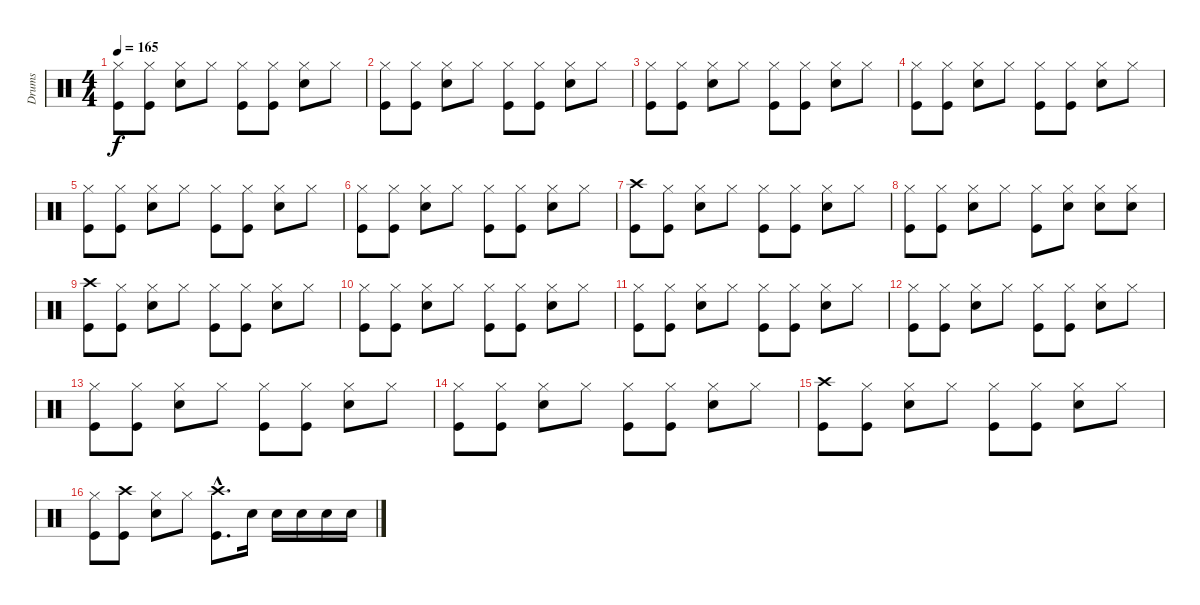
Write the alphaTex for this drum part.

\track ("Drums" "Drums") {instrument percussion}
\staff {score}
\articulation defaults
\ts (4 4)
\tempo 165
\clef neutral
\ks c
("Hi-Hat (closed)" "Kick (hit)").8{dy f} ("Hi-Hat (closed)" "Kick (hit)").8 ("Hi-Hat (closed)" "Snare (hit) 2").8 "Hi-Hat (closed)".8 ("Hi-Hat (closed)" "Kick (hit)").8 ("Hi-Hat (closed)" "Kick (hit)").8 ("Hi-Hat (closed)" "Snare (hit) 2").8 "Hi-Hat (closed)".8 |
("Hi-Hat (closed)" "Kick (hit)").8 ("Hi-Hat (closed)" "Kick (hit)").8 ("Hi-Hat (closed)" "Snare (hit) 2").8 "Hi-Hat (closed)".8 ("Hi-Hat (closed)" "Kick (hit)").8 ("Hi-Hat (closed)" "Kick (hit)").8 ("Hi-Hat (closed)" "Snare (hit) 2").8 "Hi-Hat (closed)".8 |
("Hi-Hat (closed)" "Kick (hit)").8 ("Hi-Hat (closed)" "Kick (hit)").8 ("Hi-Hat (closed)" "Snare (hit) 2").8 "Hi-Hat (closed)".8 ("Hi-Hat (closed)" "Kick (hit)").8 ("Hi-Hat (closed)" "Kick (hit)").8 ("Hi-Hat (closed)" "Snare (hit) 2").8 "Hi-Hat (closed)".8 |
("Hi-Hat (closed)" "Kick (hit)").8 ("Hi-Hat (closed)" "Kick (hit)").8 ("Hi-Hat (closed)" "Snare (hit) 2").8 "Hi-Hat (closed)".8 ("Hi-Hat (closed)" "Kick (hit)").8 ("Hi-Hat (closed)" "Kick (hit)").8 ("Hi-Hat (closed)" "Snare (hit) 2").8 "Hi-Hat (closed)".8 |
("Hi-Hat (closed)" "Kick (hit)").8 ("Hi-Hat (closed)" "Kick (hit)").8 ("Hi-Hat (closed)" "Snare (hit) 2").8 "Hi-Hat (closed)".8 ("Hi-Hat (closed)" "Kick (hit)").8 ("Hi-Hat (closed)" "Kick (hit)").8 ("Hi-Hat (closed)" "Snare (hit) 2").8 "Hi-Hat (closed)".8 |
("Hi-Hat (closed)" "Kick (hit)").8 ("Hi-Hat (closed)" "Kick (hit)").8 ("Hi-Hat (closed)" "Snare (hit) 2").8 "Hi-Hat (closed)".8 ("Hi-Hat (closed)" "Kick (hit)").8 ("Hi-Hat (closed)" "Kick (hit)").8 ("Hi-Hat (closed)" "Snare (hit) 2").8 "Hi-Hat (closed)".8 |
("Crash high (hit)" "Kick (hit)").8 ("Hi-Hat (closed)" "Kick (hit)").8 ("Hi-Hat (closed)" "Snare (hit) 2").8 "Hi-Hat (closed)".8 ("Hi-Hat (closed)" "Kick (hit)").8 ("Hi-Hat (closed)" "Kick (hit)").8 ("Hi-Hat (closed)" "Snare (hit) 2").8 "Hi-Hat (closed)".8 |
("Hi-Hat (closed)" "Kick (hit)").8 ("Hi-Hat (closed)" "Kick (hit)").8 ("Hi-Hat (closed)" "Snare (hit) 2").8 "Hi-Hat (closed)".8 ("Hi-Hat (closed)" "Kick (hit)").8 ("Hi-Hat (closed)" "Snare (hit) 2").8 ("Hi-Hat (closed)" "Snare (hit) 2").8 ("Hi-Hat (closed)" "Snare (hit) 2").8 |
("Crash high (hit)" "Kick (hit)").8 ("Hi-Hat (closed)" "Kick (hit)").8 ("Hi-Hat (closed)" "Snare (hit) 2").8 "Hi-Hat (closed)".8 ("Hi-Hat (closed)" "Kick (hit)").8 ("Hi-Hat (closed)" "Kick (hit)").8 ("Hi-Hat (closed)" "Snare (hit) 2").8 "Hi-Hat (closed)".8 |
("Hi-Hat (closed)" "Kick (hit)").8 ("Hi-Hat (closed)" "Kick (hit)").8 ("Hi-Hat (closed)" "Snare (hit) 2").8 "Hi-Hat (closed)".8 ("Hi-Hat (closed)" "Kick (hit)").8 ("Hi-Hat (closed)" "Kick (hit)").8 ("Hi-Hat (closed)" "Snare (hit) 2").8 "Hi-Hat (closed)".8 |
("Hi-Hat (closed)" "Kick (hit)").8 ("Hi-Hat (closed)" "Kick (hit)").8 ("Hi-Hat (closed)" "Snare (hit) 2").8 "Hi-Hat (closed)".8 ("Hi-Hat (closed)" "Kick (hit)").8 ("Hi-Hat (closed)" "Kick (hit)").8 ("Hi-Hat (closed)" "Snare (hit) 2").8 "Hi-Hat (closed)".8 |
("Hi-Hat (closed)" "Kick (hit)").8 ("Hi-Hat (closed)" "Kick (hit)").8 ("Hi-Hat (closed)" "Snare (hit) 2").8 "Hi-Hat (closed)".8 ("Hi-Hat (closed)" "Kick (hit)").8 ("Hi-Hat (closed)" "Kick (hit)").8 ("Hi-Hat (closed)" "Snare (hit) 2").8 "Hi-Hat (closed)".8 |
("Hi-Hat (closed)" "Kick (hit)").8 ("Hi-Hat (closed)" "Kick (hit)").8 ("Hi-Hat (closed)" "Snare (hit) 2").8 "Hi-Hat (closed)".8 ("Hi-Hat (closed)" "Kick (hit)").8 ("Hi-Hat (closed)" "Kick (hit)").8 ("Hi-Hat (closed)" "Snare (hit) 2").8 "Hi-Hat (closed)".8 |
("Hi-Hat (closed)" "Kick (hit)").8 ("Hi-Hat (closed)" "Kick (hit)").8 ("Hi-Hat (closed)" "Snare (hit) 2").8 "Hi-Hat (closed)".8 ("Hi-Hat (closed)" "Kick (hit)").8 ("Hi-Hat (closed)" "Kick (hit)").8 ("Hi-Hat (closed)" "Snare (hit) 2").8 "Hi-Hat (closed)".8 |
("Crash high (hit)" "Kick (hit)").8 ("Hi-Hat (closed)" "Kick (hit)").8 ("Hi-Hat (closed)" "Snare (hit) 2").8 "Hi-Hat (closed)".8 ("Hi-Hat (closed)" "Kick (hit)").8 ("Hi-Hat (closed)" "Kick (hit)").8 ("Hi-Hat (closed)" "Snare (hit) 2").8 "Hi-Hat (closed)".8 |
("Hi-Hat (closed)" "Kick (hit)").8 ("Crash high (hit)" "Kick (hit)").8 ("Hi-Hat (closed)" "Snare (hit) 2").8 "Hi-Hat (closed)".8 ("Crash high (hit)"{hac} "Kick (hit)"{hac}).8{d} "Snare (hit) 2".16 "Snare (hit) 2".16 "Snare (hit) 2".16 "Snare (hit) 2".16 "Snare (hit) 2".16
